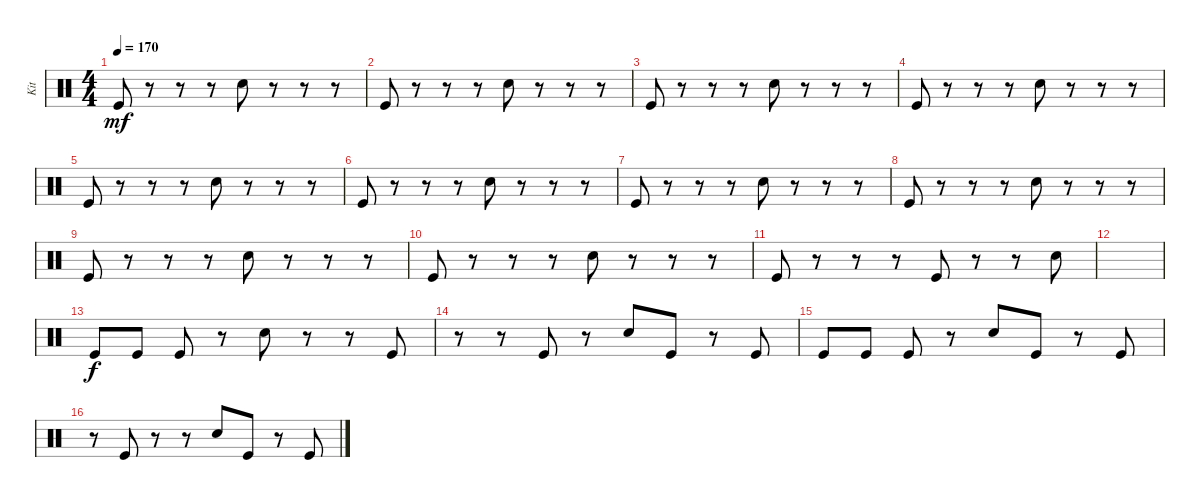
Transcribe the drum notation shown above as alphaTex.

\track ("Kit" "Kit") {instrument percussion}
\staff {score}
\articulation defaults
\ts (4 4)
\tempo 170
\clef neutral
\ks c "Kick (hit)".8{dy mf}
r.8 r.8 r.8 "Snare (hit) 2".8 r.8 r.8 r.8 |
"Kick (hit)".8 r.8 r.8 r.8 "Snare (hit) 2".8 r.8 r.8 r.8 |
"Kick (hit)".8 r.8 r.8 r.8 "Snare (hit) 2".8 r.8 r.8 r.8 |
"Kick (hit)".8 r.8 r.8 r.8 "Snare (hit) 2".8 r.8 r.8 r.8 |
"Kick (hit)".8 r.8 r.8 r.8 "Snare (hit) 2".8 r.8 r.8 r.8 |
"Kick (hit)".8 r.8 r.8 r.8 "Snare (hit) 2".8 r.8 r.8 r.8 |
"Kick (hit)".8 r.8 r.8 r.8 "Snare (hit) 2".8 r.8 r.8 r.8 |
"Kick (hit)".8 r.8 r.8 r.8 "Snare (hit) 2".8 r.8 r.8 r.8 |
"Kick (hit)".8 r.8 r.8 r.8 "Snare (hit) 2".8 r.8 r.8 r.8 |
"Kick (hit)".8 r.8 r.8 r.8 "Snare (hit) 2".8 r.8 r.8 r.8 |
"Kick (hit)".8 r.8 r.8 r.8 "Kick (hit)".8 r.8 r.8 "Snare (hit) 2".8 |
|
"Kick (hit)".8{dy f} "Kick (hit)".8 "Kick (hit)".8 r.8 "Snare (hit) 2".8 r.8 r.8 "Kick (hit)".8 |
r.8 r.8 "Kick (hit)".8 r.8 "Snare (hit) 2".8 "Kick (hit)".8 r.8 "Kick (hit)".8 |
"Kick (hit)".8 "Kick (hit)".8 "Kick (hit)".8 r.8 "Snare (hit) 2".8 "Kick (hit)".8 r.8 "Kick (hit)".8 |
r.8 "Kick (hit)".8 r.8 r.8 "Snare (hit) 2".8 "Kick (hit)".8 r.8 "Kick (hit)".8
